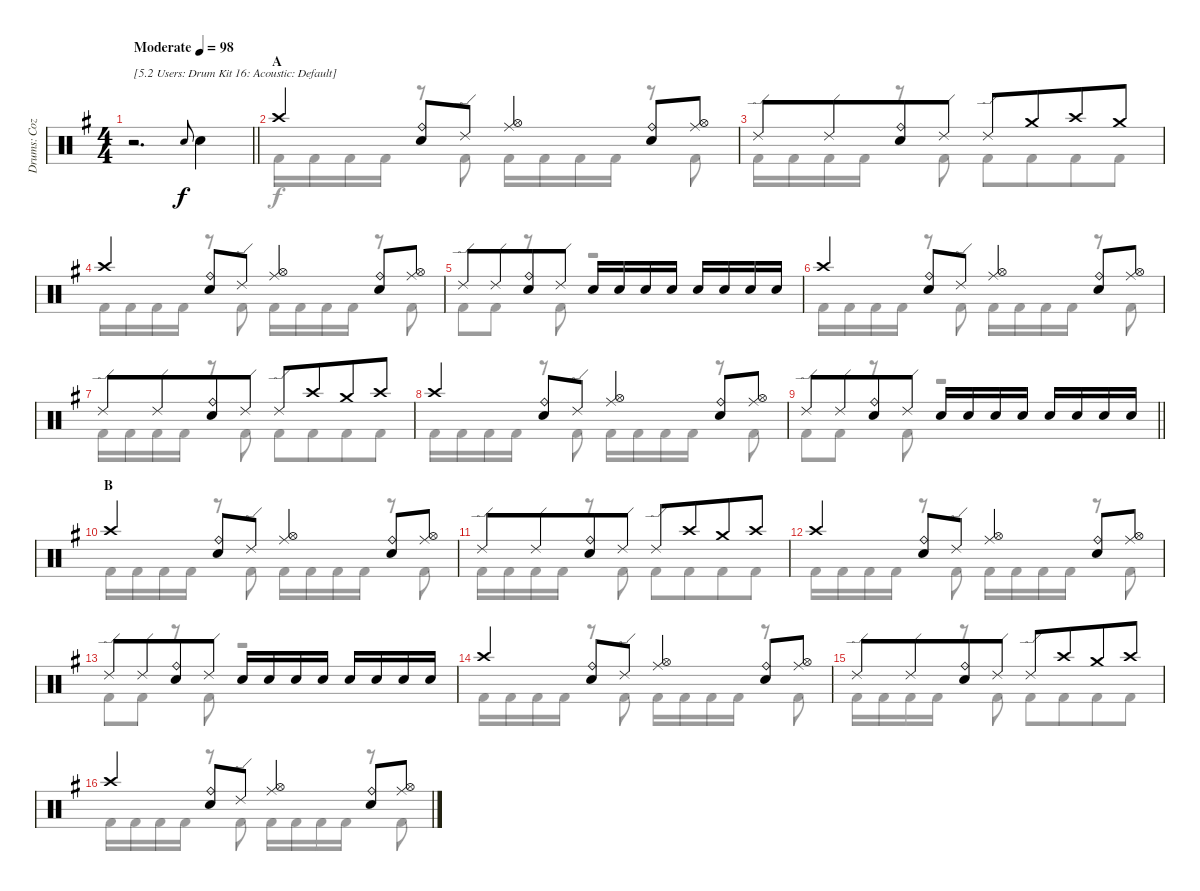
\track ("Drums: Cozy" "Drums: Coz") {instrument percussion}
\staff {score}
\articulation defaults
\voice
\ts (4 4)
\tempo (98 "Moderate")
\clef neutral
\barLineRight lightlight
\ks g
r.2{d txt "[5.2 Users: Drum Kit 16: Acoustic: Default]" dy f} "Electric Snare (hit)".8{gr onbeat} "Snare (hit) 2".4 |
\section ("" "A")
"Crash high (hit)".4 ("Ride (bell)" "Snare (hit) 2").8 "Ride (edge) 2".8 ("Ride (middle)" "Hi-Hat (open)").4 ("Ride (bell)" "Snare (hit) 2").8 ("Ride (middle)" "Hi-Hat (open)").8 |
"Ride (edge) 2".8 "Ride (edge) 2".8{beam merge} ("Ride (bell)" "Snare (hit) 2").8 "Ride (edge) 2".8 "Ride (edge) 2".8 "Crash medium (hit)".8{beam merge} "Crash high (hit)".8 "Crash medium (hit)".8 |
"Crash high (hit)".4 ("Ride (bell)" "Snare (hit) 2").8 "Ride (edge) 2".8 ("Ride (middle)" "Hi-Hat (open)").4 ("Ride (bell)" "Snare (hit) 2").8 ("Ride (middle)" "Hi-Hat (open)").8 |
"Ride (edge) 2".8 "Ride (edge) 2".8{beam merge} ("Ride (bell)" "Snare (hit) 2").8 "Ride (edge) 2".8 "Snare (hit) 2".16 "Snare (hit) 2".16{beam merge} "Snare (hit) 2".16 "Snare (hit) 2".16 "Snare (hit) 2".16 "Snare (hit) 2".16{beam merge} "Snare (hit) 2".16 "Snare (hit) 2".16 |
"Crash high (hit)".4 ("Ride (bell)" "Snare (hit) 2").8 "Ride (edge) 2".8 ("Ride (middle)" "Hi-Hat (open)").4 ("Ride (bell)" "Snare (hit) 2").8 ("Ride (middle)" "Hi-Hat (open)").8 |
"Ride (edge) 2".8 "Ride (edge) 2".8{beam merge} ("Ride (bell)" "Snare (hit) 2").8 "Ride (edge) 2".8 "Ride (edge) 2".8 "Crash high (hit)".8{beam merge} "Crash medium (hit)".8 "Crash high (hit)".8 |
"Crash high (hit)".4 ("Ride (bell)" "Snare (hit) 2").8 "Ride (edge) 2".8 ("Ride (middle)" "Hi-Hat (open)").4 ("Ride (bell)" "Snare (hit) 2").8 ("Ride (middle)" "Hi-Hat (open)").8 |
\barLineRight lightlight "Ride (edge) 2".8 "Ride (edge) 2".8{beam merge}
("Ride (bell)" "Snare (hit) 2").8 "Ride (edge) 2".8 "Snare (hit) 2".16 "Snare (hit) 2".16{beam merge} "Snare (hit) 2".16 "Snare (hit) 2".16 "Snare (hit) 2".16 "Snare (hit) 2".16{beam merge} "Snare (hit) 2".16 "Snare (hit) 2".16 |
\section ("" "B")
"Crash high (hit)".4 ("Ride (bell)" "Snare (hit) 2").8 "Ride (edge) 2".8 ("Ride (middle)" "Hi-Hat (open)").4 ("Ride (bell)" "Snare (hit) 2").8 ("Ride (middle)" "Hi-Hat (open)").8 |
"Ride (edge) 2".8 "Ride (edge) 2".8{beam merge} ("Ride (bell)" "Snare (hit) 2").8 "Ride (edge) 2".8 "Ride (edge) 2".8 "Crash high (hit)".8{beam merge} "Crash medium (hit)".8 "Crash high (hit)".8 |
"Crash high (hit)".4 ("Ride (bell)" "Snare (hit) 2").8 "Ride (edge) 2".8 ("Ride (middle)" "Hi-Hat (open)").4 ("Ride (bell)" "Snare (hit) 2").8 ("Ride (middle)" "Hi-Hat (open)").8 |
"Ride (edge) 2".8 "Ride (edge) 2".8{beam merge} ("Ride (bell)" "Snare (hit) 2").8 "Ride (edge) 2".8 "Snare (hit) 2".16 "Snare (hit) 2".16{beam merge} "Snare (hit) 2".16 "Snare (hit) 2".16 "Snare (hit) 2".16 "Snare (hit) 2".16{beam merge} "Snare (hit) 2".16 "Snare (hit) 2".16 |
"Crash high (hit)".4 ("Ride (bell)" "Snare (hit) 2").8 "Ride (edge) 2".8 ("Ride (middle)" "Hi-Hat (open)").4 ("Ride (bell)" "Snare (hit) 2").8 ("Ride (middle)" "Hi-Hat (open)").8 |
"Ride (edge) 2".8 "Ride (edge) 2".8{beam merge} ("Ride (bell)" "Snare (hit) 2").8 "Ride (edge) 2".8 "Ride (edge) 2".8 "Crash high (hit)".8{beam merge} "Crash medium (hit)".8 "Crash high (hit)".8 |
"Crash high (hit)".4 ("Ride (bell)" "Snare (hit) 2").8 "Ride (edge) 2".8 ("Ride (middle)" "Hi-Hat (open)").4 ("Ride (bell)" "Snare (hit) 2").8 ("Ride (middle)" "Hi-Hat (open)").8
\voice
\clef neutral
\ottava regular
\simile none
\barLineRight lightlight
\ks g
|
"Kick (hit) 2".16 "Kick (hit) 2".16 "Kick (hit) 2".16 "Kick (hit) 2".16 r.8 "Kick (hit) 2".8 "Kick (hit) 2".16 "Kick (hit) 2".16 "Kick (hit) 2".16 "Kick (hit) 2".16 r.8 "Kick (hit) 2".8 |
"Kick (hit) 2".16 "Kick (hit) 2".16 "Kick (hit) 2".16 "Kick (hit) 2".16 r.8{beam merge} "Kick (hit) 2".8 "Kick (hit) 2".8 "Kick (hit) 2".8{beam merge} "Kick (hit) 2".8 "Kick (hit) 2".8 |
"Kick (hit) 2".16 "Kick (hit) 2".16 "Kick (hit) 2".16 "Kick (hit) 2".16 r.8 "Kick (hit) 2".8 "Kick (hit) 2".16 "Kick (hit) 2".16 "Kick (hit) 2".16 "Kick (hit) 2".16 r.8 "Kick (hit) 2".8 |
"Kick (hit) 2".8 "Kick (hit) 2".8 r.8 "Kick (hit) 2".8 r.2 |
"Kick (hit) 2".16 "Kick (hit) 2".16 "Kick (hit) 2".16 "Kick (hit) 2".16 r.8 "Kick (hit) 2".8 "Kick (hit) 2".16 "Kick (hit) 2".16 "Kick (hit) 2".16 "Kick (hit) 2".16 r.8 "Kick (hit) 2".8 |
"Kick (hit) 2".16 "Kick (hit) 2".16 "Kick (hit) 2".16 "Kick (hit) 2".16 r.8{beam merge} "Kick (hit) 2".8 "Kick (hit) 2".8 "Kick (hit) 2".8{beam merge} "Kick (hit) 2".8 "Kick (hit) 2".8 |
"Kick (hit) 2".16 "Kick (hit) 2".16 "Kick (hit) 2".16 "Kick (hit) 2".16 r.8 "Kick (hit) 2".8 "Kick (hit) 2".16 "Kick (hit) 2".16 "Kick (hit) 2".16 "Kick (hit) 2".16 r.8 "Kick (hit) 2".8 |
\barLineRight lightlight "Kick (hit) 2".8 "Kick (hit) 2".8
r.8 "Kick (hit) 2".8 r.2 |
"Kick (hit) 2".16 "Kick (hit) 2".16 "Kick (hit) 2".16 "Kick (hit) 2".16 r.8 "Kick (hit) 2".8 "Kick (hit) 2".16 "Kick (hit) 2".16 "Kick (hit) 2".16 "Kick (hit) 2".16 r.8 "Kick (hit) 2".8 |
"Kick (hit) 2".16 "Kick (hit) 2".16 "Kick (hit) 2".16 "Kick (hit) 2".16 r.8{beam merge} "Kick (hit) 2".8 "Kick (hit) 2".8 "Kick (hit) 2".8{beam merge} "Kick (hit) 2".8 "Kick (hit) 2".8 |
"Kick (hit) 2".16 "Kick (hit) 2".16 "Kick (hit) 2".16 "Kick (hit) 2".16 r.8 "Kick (hit) 2".8 "Kick (hit) 2".16 "Kick (hit) 2".16 "Kick (hit) 2".16 "Kick (hit) 2".16 r.8 "Kick (hit) 2".8 |
"Kick (hit) 2".8 "Kick (hit) 2".8 r.8 "Kick (hit) 2".8 r.2 |
"Kick (hit) 2".16 "Kick (hit) 2".16 "Kick (hit) 2".16 "Kick (hit) 2".16 r.8 "Kick (hit) 2".8 "Kick (hit) 2".16 "Kick (hit) 2".16 "Kick (hit) 2".16 "Kick (hit) 2".16 r.8 "Kick (hit) 2".8 |
"Kick (hit) 2".16 "Kick (hit) 2".16 "Kick (hit) 2".16 "Kick (hit) 2".16 r.8{beam merge} "Kick (hit) 2".8 "Kick (hit) 2".8 "Kick (hit) 2".8{beam merge} "Kick (hit) 2".8 "Kick (hit) 2".8 |
"Kick (hit) 2".16 "Kick (hit) 2".16 "Kick (hit) 2".16 "Kick (hit) 2".16 r.8 "Kick (hit) 2".8 "Kick (hit) 2".16 "Kick (hit) 2".16 "Kick (hit) 2".16 "Kick (hit) 2".16 r.8 "Kick (hit) 2".8
